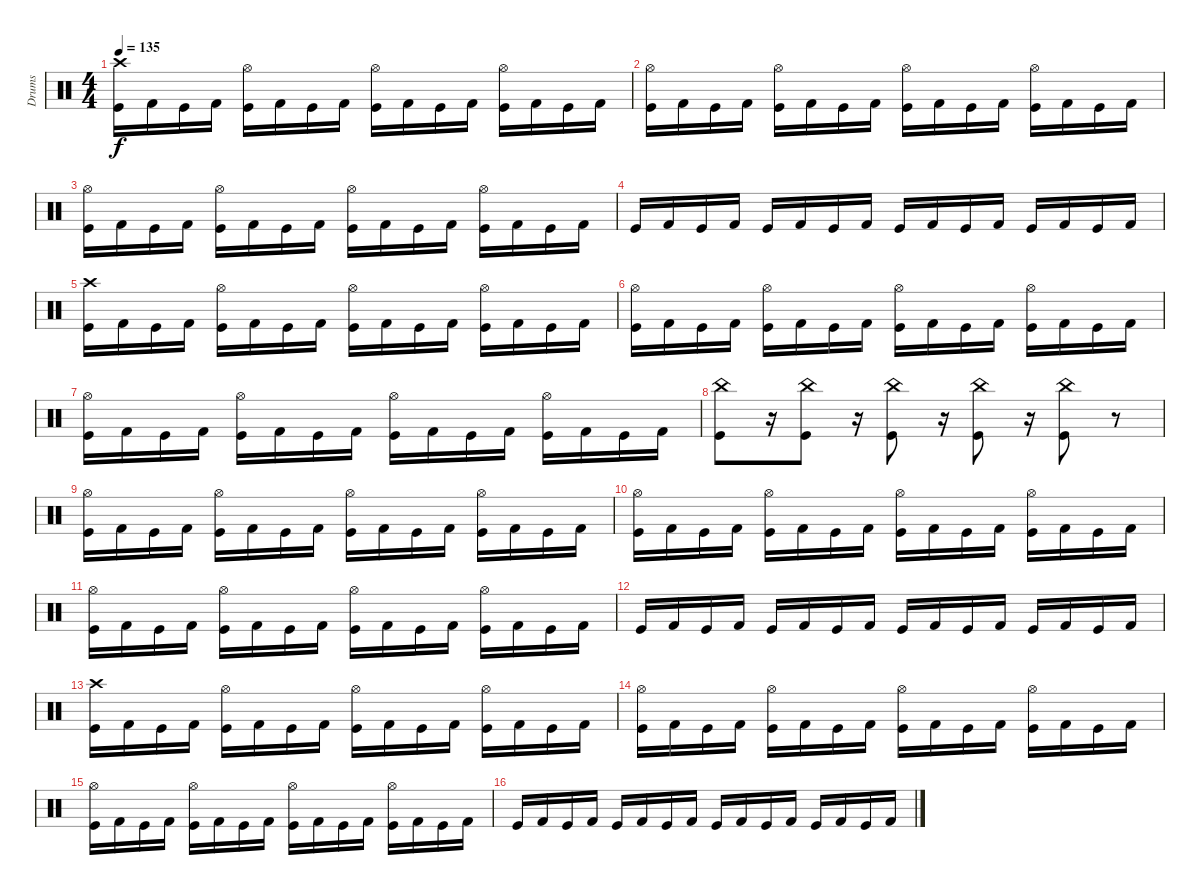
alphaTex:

\track ("Drums" "Drums") {instrument percussion}
\staff {score}
\articulation defaults
\ts (4 4)
\tempo 135
\clef neutral
\ks c
("Kick (hit)" "Crash high (hit)").16{dy f} "Kick (hit) 2".16 "Kick (hit)".16 "Kick (hit) 2".16 ("Kick (hit)" "Hi-Hat (open)").16 "Kick (hit) 2".16 "Kick (hit)".16 "Kick (hit) 2".16 ("Kick (hit)" "Hi-Hat (open)").16 "Kick (hit) 2".16 "Kick (hit)".16 "Kick (hit) 2".16 ("Kick (hit)" "Hi-Hat (open)").16 "Kick (hit) 2".16 "Kick (hit)".16 "Kick (hit) 2".16 |
("Kick (hit)" "Hi-Hat (open)").16 "Kick (hit) 2".16 "Kick (hit)".16 "Kick (hit) 2".16 ("Kick (hit)" "Hi-Hat (open)").16 "Kick (hit) 2".16 "Kick (hit)".16 "Kick (hit) 2".16 ("Kick (hit)" "Hi-Hat (open)").16 "Kick (hit) 2".16 "Kick (hit)".16 "Kick (hit) 2".16 ("Kick (hit)" "Hi-Hat (open)").16 "Kick (hit) 2".16 "Kick (hit)".16 "Kick (hit) 2".16 |
("Kick (hit)" "Hi-Hat (open)").16 "Kick (hit) 2".16 "Kick (hit)".16 "Kick (hit) 2".16 ("Kick (hit)" "Hi-Hat (open)").16 "Kick (hit) 2".16 "Kick (hit)".16 "Kick (hit) 2".16 ("Kick (hit)" "Hi-Hat (open)").16 "Kick (hit) 2".16 "Kick (hit)".16 "Kick (hit) 2".16 ("Kick (hit)" "Hi-Hat (open)").16 "Kick (hit) 2".16 "Kick (hit)".16 "Kick (hit) 2".16 |
"Kick (hit)".16 "Kick (hit) 2".16 "Kick (hit)".16 "Kick (hit) 2".16 "Kick (hit)".16 "Kick (hit) 2".16 "Kick (hit)".16 "Kick (hit) 2".16 "Kick (hit)".16 "Kick (hit) 2".16 "Kick (hit)".16 "Kick (hit) 2".16 "Kick (hit)".16 "Kick (hit) 2".16 "Kick (hit)".16 "Kick (hit) 2".16 |
("Kick (hit)" "Crash high (hit)").16 "Kick (hit) 2".16 "Kick (hit)".16 "Kick (hit) 2".16 ("Kick (hit)" "Hi-Hat (open)").16 "Kick (hit) 2".16 "Kick (hit)".16 "Kick (hit) 2".16 ("Kick (hit)" "Hi-Hat (open)").16 "Kick (hit) 2".16 "Kick (hit)".16 "Kick (hit) 2".16 ("Kick (hit)" "Hi-Hat (open)").16 "Kick (hit) 2".16 "Kick (hit)".16 "Kick (hit) 2".16 |
("Kick (hit)" "Hi-Hat (open)").16 "Kick (hit) 2".16 "Kick (hit)".16 "Kick (hit) 2".16 ("Kick (hit)" "Hi-Hat (open)").16 "Kick (hit) 2".16 "Kick (hit)".16 "Kick (hit) 2".16 ("Kick (hit)" "Hi-Hat (open)").16 "Kick (hit) 2".16 "Kick (hit)".16 "Kick (hit) 2".16 ("Kick (hit)" "Hi-Hat (open)").16 "Kick (hit) 2".16 "Kick (hit)".16 "Kick (hit) 2".16 |
("Kick (hit)" "Hi-Hat (open)").16 "Kick (hit) 2".16 "Kick (hit)".16 "Kick (hit) 2".16 ("Kick (hit)" "Hi-Hat (open)").16 "Kick (hit) 2".16 "Kick (hit)".16 "Kick (hit) 2".16 ("Kick (hit)" "Hi-Hat (open)").16 "Kick (hit) 2".16 "Kick (hit)".16 "Kick (hit) 2".16 ("Kick (hit)" "Hi-Hat (open)").16 "Kick (hit) 2".16 "Kick (hit)".16 "Kick (hit) 2".16 |
("Kick (hit)" "China (hit)").8 r.16 ("Kick (hit)" "China (hit)").8 r.16 ("Kick (hit)" "China (hit)").8 r.16 ("Kick (hit)" "China (hit)").8 r.16 ("Kick (hit)" "China (hit)").8 r.8 |
("Kick (hit)" "Hi-Hat (open)").16 "Kick (hit) 2".16 "Kick (hit)".16 "Kick (hit) 2".16 ("Kick (hit)" "Hi-Hat (open)").16 "Kick (hit) 2".16 "Kick (hit)".16 "Kick (hit) 2".16 ("Kick (hit)" "Hi-Hat (open)").16 "Kick (hit) 2".16 "Kick (hit)".16 "Kick (hit) 2".16 ("Kick (hit)" "Hi-Hat (open)").16 "Kick (hit) 2".16 "Kick (hit)".16 "Kick (hit) 2".16 |
("Kick (hit)" "Hi-Hat (open)").16 "Kick (hit) 2".16 "Kick (hit)".16 "Kick (hit) 2".16 ("Kick (hit)" "Hi-Hat (open)").16 "Kick (hit) 2".16 "Kick (hit)".16 "Kick (hit) 2".16 ("Kick (hit)" "Hi-Hat (open)").16 "Kick (hit) 2".16 "Kick (hit)".16 "Kick (hit) 2".16 ("Kick (hit)" "Hi-Hat (open)").16 "Kick (hit) 2".16 "Kick (hit)".16 "Kick (hit) 2".16 |
("Kick (hit)" "Hi-Hat (open)").16 "Kick (hit) 2".16 "Kick (hit)".16 "Kick (hit) 2".16 ("Kick (hit)" "Hi-Hat (open)").16 "Kick (hit) 2".16 "Kick (hit)".16 "Kick (hit) 2".16 ("Kick (hit)" "Hi-Hat (open)").16 "Kick (hit) 2".16 "Kick (hit)".16 "Kick (hit) 2".16 ("Kick (hit)" "Hi-Hat (open)").16 "Kick (hit) 2".16 "Kick (hit)".16 "Kick (hit) 2".16 |
"Kick (hit)".16 "Kick (hit) 2".16 "Kick (hit)".16 "Kick (hit) 2".16 "Kick (hit)".16 "Kick (hit) 2".16 "Kick (hit)".16 "Kick (hit) 2".16 "Kick (hit)".16 "Kick (hit) 2".16 "Kick (hit)".16 "Kick (hit) 2".16 "Kick (hit)".16 "Kick (hit) 2".16 "Kick (hit)".16 "Kick (hit) 2".16 |
("Kick (hit)" "Crash high (hit)").16 "Kick (hit) 2".16 "Kick (hit)".16 "Kick (hit) 2".16 ("Kick (hit)" "Hi-Hat (open)").16 "Kick (hit) 2".16 "Kick (hit)".16 "Kick (hit) 2".16 ("Kick (hit)" "Hi-Hat (open)").16 "Kick (hit) 2".16 "Kick (hit)".16 "Kick (hit) 2".16 ("Kick (hit)" "Hi-Hat (open)").16 "Kick (hit) 2".16 "Kick (hit)".16 "Kick (hit) 2".16 |
("Kick (hit)" "Hi-Hat (open)").16 "Kick (hit) 2".16 "Kick (hit)".16 "Kick (hit) 2".16 ("Kick (hit)" "Hi-Hat (open)").16 "Kick (hit) 2".16 "Kick (hit)".16 "Kick (hit) 2".16 ("Kick (hit)" "Hi-Hat (open)").16 "Kick (hit) 2".16 "Kick (hit)".16 "Kick (hit) 2".16 ("Kick (hit)" "Hi-Hat (open)").16 "Kick (hit) 2".16 "Kick (hit)".16 "Kick (hit) 2".16 |
("Kick (hit)" "Hi-Hat (open)").16 "Kick (hit) 2".16 "Kick (hit)".16 "Kick (hit) 2".16 ("Kick (hit)" "Hi-Hat (open)").16 "Kick (hit) 2".16 "Kick (hit)".16 "Kick (hit) 2".16 ("Kick (hit)" "Hi-Hat (open)").16 "Kick (hit) 2".16 "Kick (hit)".16 "Kick (hit) 2".16 ("Kick (hit)" "Hi-Hat (open)").16 "Kick (hit) 2".16 "Kick (hit)".16 "Kick (hit) 2".16 |
"Kick (hit)".16 "Kick (hit) 2".16 "Kick (hit)".16 "Kick (hit) 2".16 "Kick (hit)".16 "Kick (hit) 2".16 "Kick (hit)".16 "Kick (hit) 2".16 "Kick (hit)".16 "Kick (hit) 2".16 "Kick (hit)".16 "Kick (hit) 2".16 "Kick (hit)".16 "Kick (hit) 2".16 "Kick (hit)".16 "Kick (hit) 2".16
